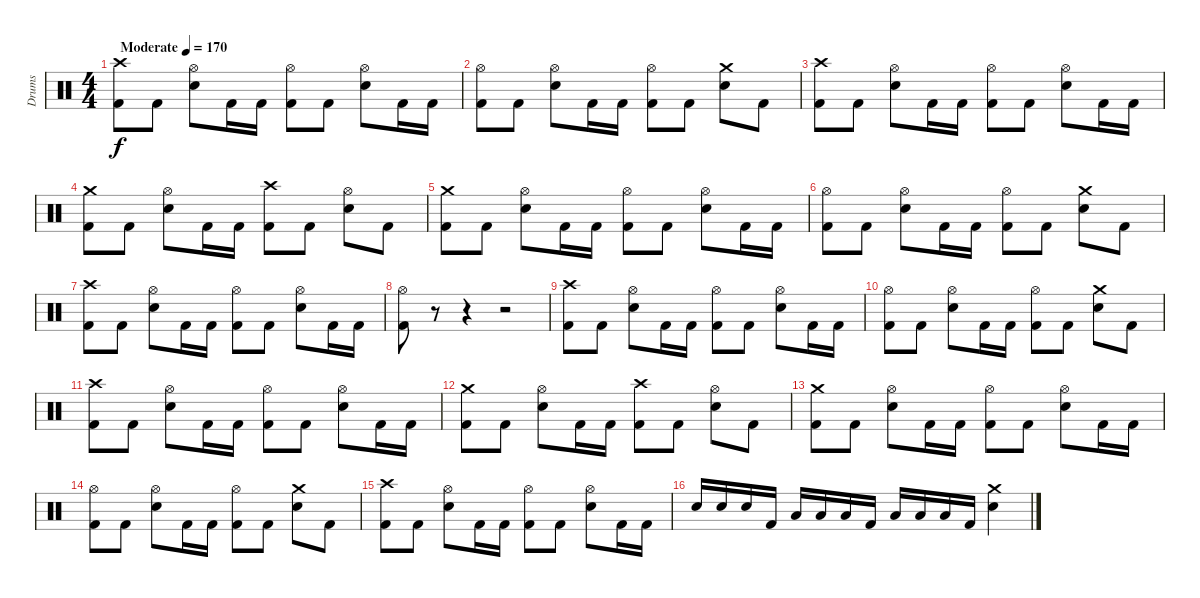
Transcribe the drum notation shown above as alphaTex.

\track ("Drums" "Drums") {instrument percussion}
\staff {score}
\articulation defaults
\ts (4 4)
\tempo (170 "Moderate")
\clef neutral
\ks c
("Crash high (hit)" "Kick (hit) 2").8{dy f volume 3} "Kick (hit) 2".8{volume 8} ("Hi-Hat (open)" "Electric Snare (hit)").8 "Kick (hit) 2".16 "Kick (hit) 2".16 ("Hi-Hat (open)" "Kick (hit) 2").8 "Kick (hit) 2".8 ("Hi-Hat (open)" "Electric Snare (hit)").8 "Kick (hit) 2".16 "Kick (hit) 2".16 |
("Hi-Hat (open)" "Kick (hit) 2").8 "Kick (hit) 2".8 ("Hi-Hat (open)" "Electric Snare (hit)").8 "Kick (hit) 2".16 "Kick (hit) 2".16 ("Hi-Hat (open)" "Kick (hit) 2").8 "Kick (hit) 2".8 ("Crash medium (hit)" "Electric Snare (hit)").8 "Kick (hit) 2".8 |
("Crash high (hit)" "Kick (hit) 2").8 "Kick (hit) 2".8 ("Hi-Hat (open)" "Electric Snare (hit)").8 "Kick (hit) 2".16 "Kick (hit) 2".16 ("Hi-Hat (open)" "Kick (hit) 2").8 "Kick (hit) 2".8 ("Hi-Hat (open)" "Electric Snare (hit)").8 "Kick (hit) 2".16 "Kick (hit) 2".16 |
("Crash medium (hit)" "Kick (hit) 2").8 "Kick (hit) 2".8 ("Hi-Hat (open)" "Electric Snare (hit)").8 "Kick (hit) 2".16 "Kick (hit) 2".16 ("Crash high (hit)" "Kick (hit) 2").8 "Kick (hit) 2".8 ("Hi-Hat (open)" "Electric Snare (hit)").8 "Kick (hit) 2".8 |
("Crash medium (hit)" "Kick (hit) 2").8 "Kick (hit) 2".8{volume 11} ("Hi-Hat (open)" "Electric Snare (hit)").8 "Kick (hit) 2".16 "Kick (hit) 2".16 ("Hi-Hat (open)" "Kick (hit) 2").8 "Kick (hit) 2".8 ("Hi-Hat (open)" "Electric Snare (hit)").8 "Kick (hit) 2".16 "Kick (hit) 2".16 |
("Hi-Hat (open)" "Kick (hit) 2").8 "Kick (hit) 2".8 ("Hi-Hat (open)" "Electric Snare (hit)").8 "Kick (hit) 2".16 "Kick (hit) 2".16 ("Hi-Hat (open)" "Kick (hit) 2").8 "Kick (hit) 2".8 ("Crash medium (hit)" "Electric Snare (hit)").8 "Kick (hit) 2".8 |
("Crash high (hit)" "Kick (hit) 2").8 "Kick (hit) 2".8 ("Hi-Hat (open)" "Electric Snare (hit)").8 "Kick (hit) 2".16 "Kick (hit) 2".16 ("Hi-Hat (open)" "Kick (hit) 2").8 "Kick (hit) 2".8 ("Hi-Hat (open)" "Electric Snare (hit)").8 "Kick (hit) 2".16 "Kick (hit) 2".16 |
("Hi-Hat (open)" "Kick (hit) 2").8 r.8 r.4 r.2 |
("Crash high (hit)" "Kick (hit) 2").8{volume 13} "Kick (hit) 2".8 ("Hi-Hat (open)" "Electric Snare (hit)").8 "Kick (hit) 2".16 "Kick (hit) 2".16 ("Hi-Hat (open)" "Kick (hit) 2").8 "Kick (hit) 2".8 ("Hi-Hat (open)" "Electric Snare (hit)").8 "Kick (hit) 2".16 "Kick (hit) 2".16 |
("Hi-Hat (open)" "Kick (hit) 2").8 "Kick (hit) 2".8 ("Hi-Hat (open)" "Electric Snare (hit)").8 "Kick (hit) 2".16 "Kick (hit) 2".16 ("Hi-Hat (open)" "Kick (hit) 2").8 "Kick (hit) 2".8 ("Crash medium (hit)" "Electric Snare (hit)").8 "Kick (hit) 2".8 |
("Crash high (hit)" "Kick (hit) 2").8 "Kick (hit) 2".8 ("Hi-Hat (open)" "Electric Snare (hit)").8 "Kick (hit) 2".16 "Kick (hit) 2".16 ("Hi-Hat (open)" "Kick (hit) 2").8 "Kick (hit) 2".8 ("Hi-Hat (open)" "Electric Snare (hit)").8 "Kick (hit) 2".16 "Kick (hit) 2".16 |
("Crash medium (hit)" "Kick (hit) 2").8 "Kick (hit) 2".8 ("Hi-Hat (open)" "Electric Snare (hit)").8 "Kick (hit) 2".16 "Kick (hit) 2".16 ("Crash high (hit)" "Kick (hit) 2").8 "Kick (hit) 2".8 ("Hi-Hat (open)" "Electric Snare (hit)").8 "Kick (hit) 2".8 |
("Crash medium (hit)" "Kick (hit) 2").8 "Kick (hit) 2".8 ("Hi-Hat (open)" "Electric Snare (hit)").8 "Kick (hit) 2".16 "Kick (hit) 2".16 ("Hi-Hat (open)" "Kick (hit) 2").8 "Kick (hit) 2".8 ("Hi-Hat (open)" "Electric Snare (hit)").8 "Kick (hit) 2".16 "Kick (hit) 2".16 |
("Hi-Hat (open)" "Kick (hit) 2").8 "Kick (hit) 2".8 ("Hi-Hat (open)" "Electric Snare (hit)").8 "Kick (hit) 2".16 "Kick (hit) 2".16 ("Hi-Hat (open)" "Kick (hit) 2").8 "Kick (hit) 2".8 ("Crash medium (hit)" "Electric Snare (hit)").8 "Kick (hit) 2".8 |
("Crash high (hit)" "Kick (hit) 2").8 "Kick (hit) 2".8 ("Hi-Hat (open)" "Electric Snare (hit)").8 "Kick (hit) 2".16 "Kick (hit) 2".16 ("Hi-Hat (open)" "Kick (hit) 2").8 "Kick (hit) 2".8 ("Hi-Hat (open)" "Electric Snare (hit)").8 "Kick (hit) 2".16 "Kick (hit) 2".16 |
"Electric Snare (hit)".16 "Electric Snare (hit)".16 "Electric Snare (hit)".16 "Kick (hit) 2".16 "Low Tom (hit)".16 "Low Tom (hit)".16 "Low Tom (hit)".16 "Kick (hit) 2".16 "Low Floor Tom (hit)".16 "Low Floor Tom (hit)".16 "Low Floor Tom (hit)".16 "Kick (hit) 2".16 ("Crash medium (hit)" "Electric Snare (hit)").4
